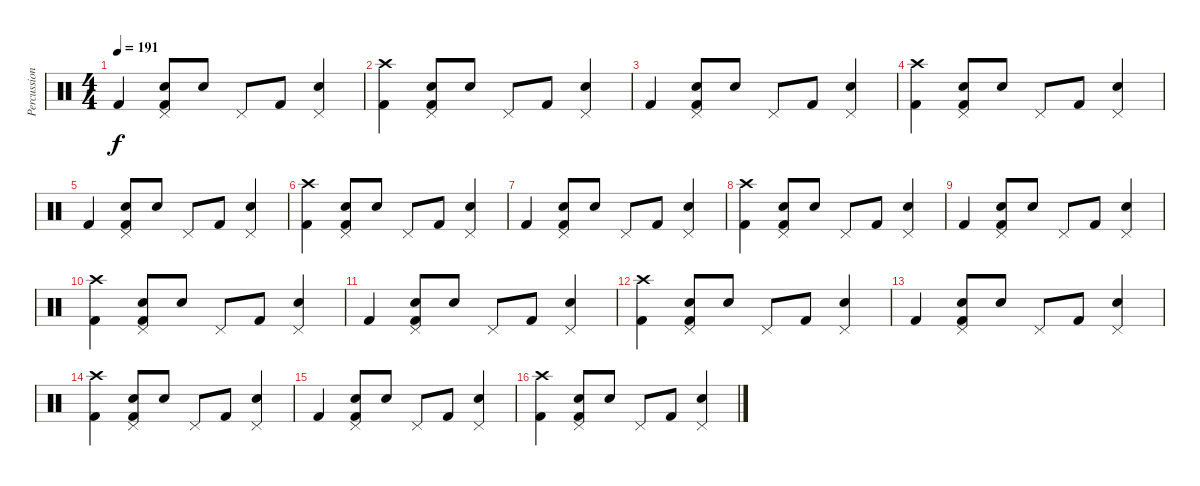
\track ("Percussion" "Percussion") {instrument percussion}
\staff {score}
\articulation defaults
\ts (4 4)
\tempo 191
\clef neutral
\ks c "Kick (hit) 2".4{dy f}
("Pedal Hi-Hat (hit)" "Snare (hit) 2" "Kick (hit) 2").8 "Snare (hit) 2".8 "Pedal Hi-Hat (hit)".8 "Kick (hit) 2".8 ("Pedal Hi-Hat (hit)" "Snare (hit) 2").4 |
("Crash high (hit)" "Kick (hit) 2").4 ("Pedal Hi-Hat (hit)" "Snare (hit) 2" "Kick (hit) 2").8 "Snare (hit) 2".8 "Pedal Hi-Hat (hit)".8 "Kick (hit) 2".8 ("Pedal Hi-Hat (hit)" "Snare (hit) 2").4 |
"Kick (hit) 2".4 ("Pedal Hi-Hat (hit)" "Snare (hit) 2" "Kick (hit) 2").8 "Snare (hit) 2".8 "Pedal Hi-Hat (hit)".8 "Kick (hit) 2".8 ("Pedal Hi-Hat (hit)" "Snare (hit) 2").4 |
("Crash high (hit)" "Kick (hit) 2").4 ("Pedal Hi-Hat (hit)" "Snare (hit) 2" "Kick (hit) 2").8 "Snare (hit) 2".8 "Pedal Hi-Hat (hit)".8 "Kick (hit) 2".8 ("Pedal Hi-Hat (hit)" "Snare (hit) 2").4 |
"Kick (hit) 2".4 ("Pedal Hi-Hat (hit)" "Snare (hit) 2" "Kick (hit) 2").8 "Snare (hit) 2".8 "Pedal Hi-Hat (hit)".8 "Kick (hit) 2".8 ("Pedal Hi-Hat (hit)" "Snare (hit) 2").4 |
("Crash high (hit)" "Kick (hit) 2").4 ("Pedal Hi-Hat (hit)" "Snare (hit) 2" "Kick (hit) 2").8 "Snare (hit) 2".8 "Pedal Hi-Hat (hit)".8 "Kick (hit) 2".8 ("Pedal Hi-Hat (hit)" "Snare (hit) 2").4 |
"Kick (hit) 2".4 ("Pedal Hi-Hat (hit)" "Snare (hit) 2" "Kick (hit) 2").8 "Snare (hit) 2".8 "Pedal Hi-Hat (hit)".8 "Kick (hit) 2".8 ("Pedal Hi-Hat (hit)" "Snare (hit) 2").4 |
("Crash high (hit)" "Kick (hit) 2").4 ("Pedal Hi-Hat (hit)" "Snare (hit) 2" "Kick (hit) 2").8 "Snare (hit) 2".8 "Pedal Hi-Hat (hit)".8 "Kick (hit) 2".8 ("Pedal Hi-Hat (hit)" "Snare (hit) 2").4 |
"Kick (hit) 2".4 ("Pedal Hi-Hat (hit)" "Snare (hit) 2" "Kick (hit) 2").8 "Snare (hit) 2".8 "Pedal Hi-Hat (hit)".8 "Kick (hit) 2".8 ("Pedal Hi-Hat (hit)" "Snare (hit) 2").4 |
("Crash high (hit)" "Kick (hit) 2").4 ("Pedal Hi-Hat (hit)" "Snare (hit) 2" "Kick (hit) 2").8 "Snare (hit) 2".8 "Pedal Hi-Hat (hit)".8 "Kick (hit) 2".8 ("Pedal Hi-Hat (hit)" "Snare (hit) 2").4 |
"Kick (hit) 2".4 ("Pedal Hi-Hat (hit)" "Snare (hit) 2" "Kick (hit) 2").8 "Snare (hit) 2".8 "Pedal Hi-Hat (hit)".8 "Kick (hit) 2".8 ("Pedal Hi-Hat (hit)" "Snare (hit) 2").4 |
("Crash high (hit)" "Kick (hit) 2").4 ("Pedal Hi-Hat (hit)" "Snare (hit) 2" "Kick (hit) 2").8 "Snare (hit) 2".8 "Pedal Hi-Hat (hit)".8 "Kick (hit) 2".8 ("Pedal Hi-Hat (hit)" "Snare (hit) 2").4 |
"Kick (hit) 2".4 ("Pedal Hi-Hat (hit)" "Snare (hit) 2" "Kick (hit) 2").8 "Snare (hit) 2".8 "Pedal Hi-Hat (hit)".8 "Kick (hit) 2".8 ("Pedal Hi-Hat (hit)" "Snare (hit) 2").4 |
("Crash high (hit)" "Kick (hit) 2").4 ("Pedal Hi-Hat (hit)" "Snare (hit) 2" "Kick (hit) 2").8 "Snare (hit) 2".8 "Pedal Hi-Hat (hit)".8 "Kick (hit) 2".8 ("Pedal Hi-Hat (hit)" "Snare (hit) 2").4 |
"Kick (hit) 2".4 ("Pedal Hi-Hat (hit)" "Snare (hit) 2" "Kick (hit) 2").8 "Snare (hit) 2".8 "Pedal Hi-Hat (hit)".8 "Kick (hit) 2".8 ("Pedal Hi-Hat (hit)" "Snare (hit) 2").4 |
("Crash high (hit)" "Kick (hit) 2").4 ("Pedal Hi-Hat (hit)" "Snare (hit) 2" "Kick (hit) 2").8 "Snare (hit) 2".8 "Pedal Hi-Hat (hit)".8 "Kick (hit) 2".8 ("Pedal Hi-Hat (hit)" "Snare (hit) 2").4
